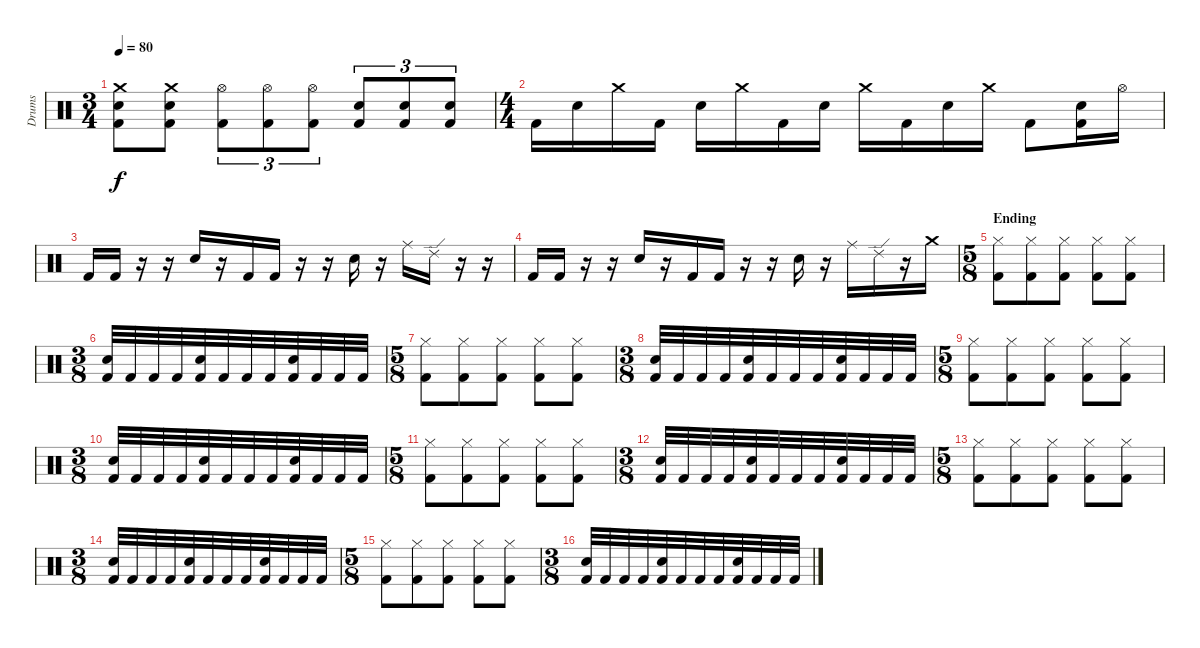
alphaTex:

\track ("Drums" "Drums") {instrument percussion}
\staff {score}
\articulation defaults
\ts (3 4)
\tempo 80
\clef neutral
\ks c
("Crash medium (hit)" "Snare (hit) 2" "Kick (hit) 2").8{dy f} ("Crash medium (hit)" "Snare (hit) 2" "Kick (hit) 2").8 ("Hi-Hat (open)" "Kick (hit) 2").8{tu (3 2)} ("Hi-Hat (open)" "Kick (hit) 2").8{tu (3 2)} ("Hi-Hat (open)" "Kick (hit) 2").8{tu (3 2)} ("Snare (hit) 2" "Kick (hit) 2").8{tu (3 2)} ("Snare (hit) 2" "Kick (hit) 2").8{tu (3 2)} ("Snare (hit) 2" "Kick (hit) 2").8{tu (3 2)} |
\ts (4 4)
"Kick (hit) 2".16 "Snare (hit) 2".16 "Crash medium (hit)".16 "Kick (hit) 2".16 "Snare (hit) 2".16 "Crash medium (hit)".16 "Kick (hit) 2".16 "Snare (hit) 2".16 "Crash medium (hit)".16 "Kick (hit) 2".16 "Snare (hit) 2".16 "Crash medium (hit)".16 "Kick (hit) 2".8 ("Snare (hit) 2" "Kick (hit) 2").16 "Hi-Hat (open)".16 |
"Kick (hit) 2".16 "Kick (hit) 2".16 r.16 r.16 "Snare (hit) 2".16 r.16 "Kick (hit) 2".16 "Kick (hit) 2".16 r.16 r.16 "Snare (hit) 2".16 r.16 "Ride (middle)".16 "Ride (edge) 2".16 r.16 r.16 |
"Kick (hit) 2".16 "Kick (hit) 2".16 r.16 r.16 "Snare (hit) 2".16 r.16 "Kick (hit) 2".16 "Kick (hit) 2".16 r.16 r.16 "Snare (hit) 2".16 r.16 "Ride (middle)".16 "Ride (edge) 2".16 r.16 "Crash medium (hit)".16 |
\ts (5 8)
\section ("" "Ending")
("Hi-Hat (closed)" "Kick (hit) 2").8 ("Hi-Hat (closed)" "Kick (hit) 2").8 ("Hi-Hat (closed)" "Kick (hit) 2").8 ("Hi-Hat (closed)" "Kick (hit) 2").8 ("Hi-Hat (closed)" "Kick (hit) 2").8 |
\ts (3 8)
("Snare (hit) 2" "Kick (hit) 2").32 "Kick (hit) 2".32 "Kick (hit) 2".32 "Kick (hit) 2".32 ("Snare (hit) 2" "Kick (hit) 2").32 "Kick (hit) 2".32 "Kick (hit) 2".32 "Kick (hit) 2".32 ("Snare (hit) 2" "Kick (hit) 2").32 "Kick (hit) 2".32 "Kick (hit) 2".32 "Kick (hit) 2".32 |
\ts (5 8)
("Hi-Hat (closed)" "Kick (hit) 2").8 ("Hi-Hat (closed)" "Kick (hit) 2").8 ("Hi-Hat (closed)" "Kick (hit) 2").8 ("Hi-Hat (closed)" "Kick (hit) 2").8 ("Hi-Hat (closed)" "Kick (hit) 2").8 |
\ts (3 8)
("Snare (hit) 2" "Kick (hit) 2").32 "Kick (hit) 2".32 "Kick (hit) 2".32 "Kick (hit) 2".32 ("Snare (hit) 2" "Kick (hit) 2").32 "Kick (hit) 2".32 "Kick (hit) 2".32 "Kick (hit) 2".32 ("Snare (hit) 2" "Kick (hit) 2").32 "Kick (hit) 2".32 "Kick (hit) 2".32 "Kick (hit) 2".32 |
\ts (5 8)
("Hi-Hat (closed)" "Kick (hit) 2").8 ("Hi-Hat (closed)" "Kick (hit) 2").8 ("Hi-Hat (closed)" "Kick (hit) 2").8 ("Hi-Hat (closed)" "Kick (hit) 2").8 ("Hi-Hat (closed)" "Kick (hit) 2").8 |
\ts (3 8)
("Snare (hit) 2" "Kick (hit) 2").32 "Kick (hit) 2".32 "Kick (hit) 2".32 "Kick (hit) 2".32 ("Snare (hit) 2" "Kick (hit) 2").32 "Kick (hit) 2".32 "Kick (hit) 2".32 "Kick (hit) 2".32 ("Snare (hit) 2" "Kick (hit) 2").32 "Kick (hit) 2".32 "Kick (hit) 2".32 "Kick (hit) 2".32 |
\ts (5 8)
("Hi-Hat (closed)" "Kick (hit) 2").8 ("Hi-Hat (closed)" "Kick (hit) 2").8 ("Hi-Hat (closed)" "Kick (hit) 2").8 ("Hi-Hat (closed)" "Kick (hit) 2").8 ("Hi-Hat (closed)" "Kick (hit) 2").8 |
\ts (3 8)
("Snare (hit) 2" "Kick (hit) 2").32 "Kick (hit) 2".32 "Kick (hit) 2".32 "Kick (hit) 2".32 ("Snare (hit) 2" "Kick (hit) 2").32 "Kick (hit) 2".32 "Kick (hit) 2".32 "Kick (hit) 2".32 ("Snare (hit) 2" "Kick (hit) 2").32 "Kick (hit) 2".32 "Kick (hit) 2".32 "Kick (hit) 2".32 |
\ts (5 8)
("Hi-Hat (closed)" "Kick (hit) 2").8 ("Hi-Hat (closed)" "Kick (hit) 2").8 ("Hi-Hat (closed)" "Kick (hit) 2").8 ("Hi-Hat (closed)" "Kick (hit) 2").8 ("Hi-Hat (closed)" "Kick (hit) 2").8 |
\ts (3 8)
("Snare (hit) 2" "Kick (hit) 2").32 "Kick (hit) 2".32 "Kick (hit) 2".32 "Kick (hit) 2".32 ("Snare (hit) 2" "Kick (hit) 2").32 "Kick (hit) 2".32 "Kick (hit) 2".32 "Kick (hit) 2".32 ("Snare (hit) 2" "Kick (hit) 2").32 "Kick (hit) 2".32 "Kick (hit) 2".32 "Kick (hit) 2".32 |
\ts (5 8)
("Hi-Hat (closed)" "Kick (hit) 2").8 ("Hi-Hat (closed)" "Kick (hit) 2").8 ("Hi-Hat (closed)" "Kick (hit) 2").8 ("Hi-Hat (closed)" "Kick (hit) 2").8 ("Hi-Hat (closed)" "Kick (hit) 2").8 |
\ts (3 8)
("Snare (hit) 2" "Kick (hit) 2").32 "Kick (hit) 2".32 "Kick (hit) 2".32 "Kick (hit) 2".32 ("Snare (hit) 2" "Kick (hit) 2").32 "Kick (hit) 2".32 "Kick (hit) 2".32 "Kick (hit) 2".32 ("Snare (hit) 2" "Kick (hit) 2").32 "Kick (hit) 2".32 "Kick (hit) 2".32 "Kick (hit) 2".32
